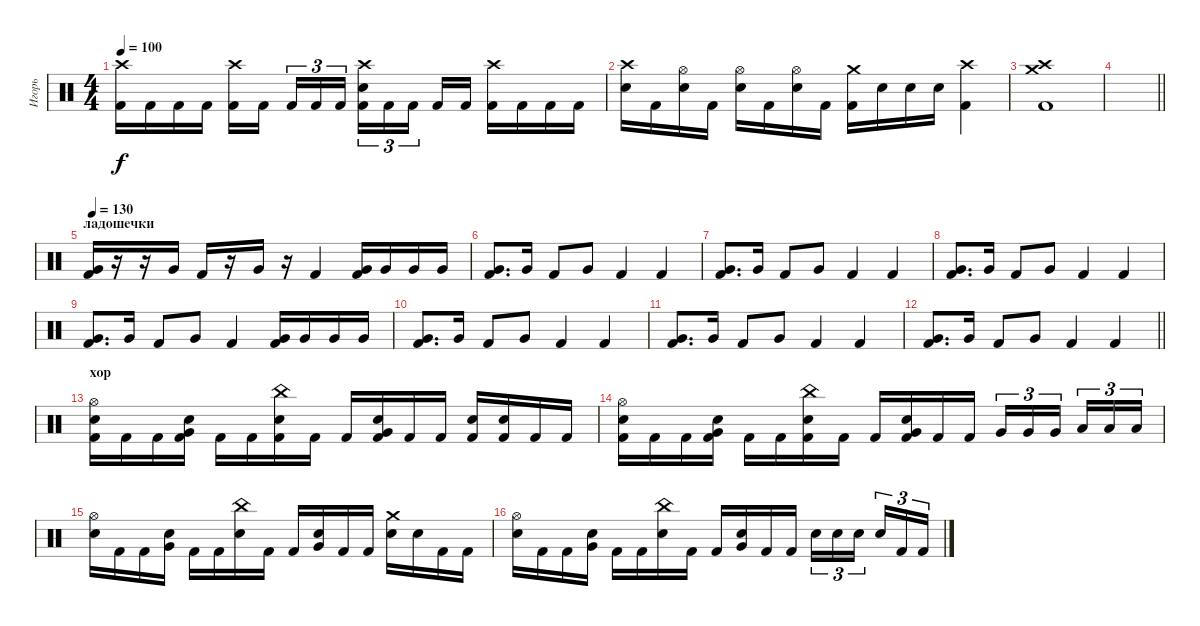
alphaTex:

\track ("Игорь" "Игорь") {instrument percussion}
\staff {score}
\articulation defaults
\ts (4 4)
\tempo 100
\clef neutral
\ks c
("Crash high (hit)" "Kick (hit) 2").16{dy f} "Kick (hit) 2".16 "Kick (hit) 2".16 "Kick (hit) 2".16 ("Crash high (hit)" "Kick (hit) 2").16 "Kick (hit) 2".16{beam splitsecondary} "Kick (hit) 2".16{tu (3 2)} "Kick (hit) 2".16{tu (3 2)} "Kick (hit) 2".16{tu (3 2)} ("Crash high (hit)" "Electric Snare (hit)" "Kick (hit) 2").16{tu (3 2)} "Kick (hit) 2".16{tu (3 2)} "Kick (hit) 2".16{tu (3 2) beam splitsecondary} "Kick (hit) 2".16 "Kick (hit) 2".16 ("Crash high (hit)" "Kick (hit) 2").16 "Kick (hit) 2".16 "Kick (hit) 2".16 "Kick (hit) 2".16 |
("Crash high (hit)" "Electric Snare (hit)").16 "Kick (hit) 2".16 ("Hi-Hat (open)" "Electric Snare (hit)").16 "Kick (hit) 2".16 ("Hi-Hat (open)" "Electric Snare (hit)").16 "Kick (hit) 2".16 ("Hi-Hat (open)" "Electric Snare (hit)").16 "Kick (hit) 2".16 ("Crash medium (hit)" "Kick (hit) 2").16 "Electric Snare (hit)".16 "Electric Snare (hit)".16 "Electric Snare (hit)".16 ("Crash high (hit)" "Kick (hit) 2").4 |
("Crash high (hit)" "Crash medium (hit)" "Kick (hit) 2").1 |
\barLineRight lightlight
|
\section ("" "ладошечки")
\tempo 130
("Very Low Tom (hit)" "Kick (hit) 2").16 r.16 r.16 "Very Low Tom (hit)".16 "Kick (hit) 2".16 r.16 "Very Low Tom (hit)".16 r.16 "Kick (hit) 2".4 ("Very Low Tom (hit)" "Kick (hit) 2").16 "Very Low Tom (hit)".16 "Very Low Tom (hit)".16 "Very Low Tom (hit)".16 |
("Very Low Tom (hit)" "Kick (hit) 2").8{d} "Very Low Tom (hit)".16 "Kick (hit) 2".8 "Very Low Tom (hit)".8 "Kick (hit) 2".4 "Kick (hit) 2".4 |
("Very Low Tom (hit)" "Kick (hit) 2").8{d} "Very Low Tom (hit)".16 "Kick (hit) 2".8 "Very Low Tom (hit)".8 "Kick (hit) 2".4 "Kick (hit) 2".4 |
("Very Low Tom (hit)" "Kick (hit) 2").8{d} "Very Low Tom (hit)".16 "Kick (hit) 2".8 "Very Low Tom (hit)".8 "Kick (hit) 2".4 "Kick (hit) 2".4 |
("Very Low Tom (hit)" "Kick (hit) 2").8{d} "Very Low Tom (hit)".16 "Kick (hit) 2".8 "Very Low Tom (hit)".8 "Kick (hit) 2".4 ("Very Low Tom (hit)" "Kick (hit) 2").16 "Very Low Tom (hit)".16 "Very Low Tom (hit)".16 "Very Low Tom (hit)".16 |
("Very Low Tom (hit)" "Kick (hit) 2").8{d} "Very Low Tom (hit)".16 "Kick (hit) 2".8 "Very Low Tom (hit)".8 "Kick (hit) 2".4 "Kick (hit) 2".4 |
("Very Low Tom (hit)" "Kick (hit) 2").8{d} "Very Low Tom (hit)".16 "Kick (hit) 2".8 "Very Low Tom (hit)".8 "Kick (hit) 2".4 "Kick (hit) 2".4 |
\barLineRight lightlight
("Very Low Tom (hit)" "Kick (hit) 2").8{d} "Very Low Tom (hit)".16 "Kick (hit) 2".8 "Very Low Tom (hit)".8 "Kick (hit) 2".4 "Kick (hit) 2".4 |
\section ("" "хор")
("Hi-Hat (open)" "Electric Snare (hit)" "Kick (hit) 2").16 "Kick (hit) 2".16 "Kick (hit) 2".16 ("Very Low Tom (hit)" "Electric Snare (hit)" "Kick (hit) 2").16 "Kick (hit) 2".16 "Kick (hit) 2".16 ("China (hit)" "Electric Snare (hit)" "Kick (hit) 2").16 "Kick (hit) 2".16 "Kick (hit) 2".16 ("Very Low Tom (hit)" "Electric Snare (hit)" "Kick (hit) 2").16 "Kick (hit) 2".16 "Kick (hit) 2".16 ("Electric Snare (hit)" "Kick (hit) 2").16 ("Electric Snare (hit)" "Kick (hit) 2").16 "Kick (hit) 2".16 "Kick (hit) 2".16 |
("Hi-Hat (open)" "Electric Snare (hit)" "Kick (hit) 2").16 "Kick (hit) 2".16 "Kick (hit) 2".16 ("Very Low Tom (hit)" "Electric Snare (hit)" "Kick (hit) 2").16 "Kick (hit) 2".16 "Kick (hit) 2".16 ("China (hit)" "Electric Snare (hit)" "Kick (hit) 2").16 "Kick (hit) 2".16 "Kick (hit) 2".16 ("Very Low Tom (hit)" "Electric Snare (hit)" "Kick (hit) 2").16 "Kick (hit) 2".16 "Kick (hit) 2".16 "Very Low Tom (hit)".16{tu (3 2)} "Very Low Tom (hit)".16{tu (3 2)} "Very Low Tom (hit)".16{tu (3 2) beam splitsecondary} "Low Tom (hit)".16{tu (3 2)} "Low Tom (hit)".16{tu (3 2)} "Low Tom (hit)".16{tu (3 2)} |
("Hi-Hat (open)" "Electric Snare (hit)").16 "Kick (hit) 2".16 "Kick (hit) 2".16 ("Electric Snare (hit)" "Very Low Tom (hit)").16 "Kick (hit) 2".16 "Kick (hit) 2".16 ("China (hit)" "Electric Snare (hit)").16 "Kick (hit) 2".16 "Kick (hit) 2".16 ("Electric Snare (hit)" "Very Low Tom (hit)").16 "Kick (hit) 2".16 "Kick (hit) 2".16 ("Crash medium (hit)" "Electric Snare (hit)").16 "Electric Snare (hit)".16 "Kick (hit) 2".16 "Kick (hit) 2".16 |
("Hi-Hat (open)" "Electric Snare (hit)").16 "Kick (hit) 2".16 "Kick (hit) 2".16 ("Electric Snare (hit)" "Very Low Tom (hit)").16 "Kick (hit) 2".16 "Kick (hit) 2".16 ("China (hit)" "Electric Snare (hit)").16 "Kick (hit) 2".16 "Kick (hit) 2".16 ("Electric Snare (hit)" "Very Low Tom (hit)").16 "Kick (hit) 2".16 "Kick (hit) 2".16 "Electric Snare (hit)".16{tu (3 2)} "Electric Snare (hit)".16{tu (3 2)} "Electric Snare (hit)".16{tu (3 2) beam splitsecondary} "Electric Snare (hit)".16{tu (3 2)} "Kick (hit) 2".16{tu (3 2)} "Kick (hit) 2".16{tu (3 2)}
